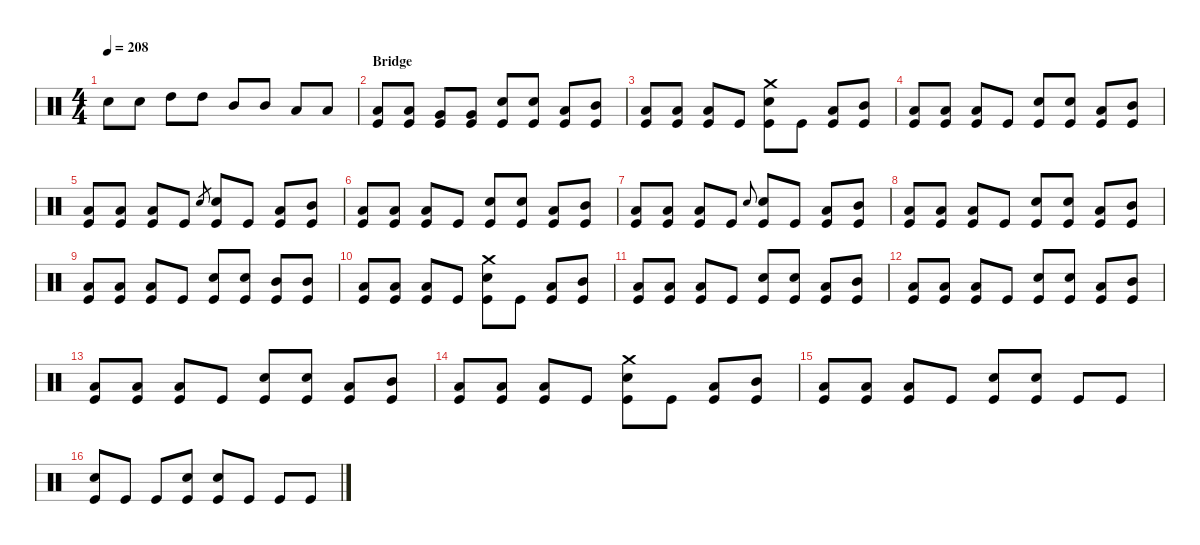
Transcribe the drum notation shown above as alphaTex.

\defaultSystemsLayout 4
\hideDynamics
\bracketExtendMode nobrackets
\singleTrackTrackNamePolicy hidden
\multiTrackTrackNamePolicy hidden
\otherSystemsTrackNameOrientation horizontal
\track ("Drums" "drm.") {multiBarRest instrument percussion}
\staff {score}
\articulation defaults
\ts (4 4)
\tempo 208
\clef neutral
\ks c "Snare (hit) 2".8{dy f beam Down} "Snare (hit) 2".8{beam Down} "High Tom (hit)".8{dy ff beam Down} "High Tom (hit)".8{beam Down} "Mid Tom (hit)".8{beam Up} "Mid Tom (hit)".8{beam Up} "Low Tom (hit)".8{beam Up} "Low Tom (hit)".8{beam Up}
|
\section ("" "Bridge")
("Kick (hit)" "Low Tom (hit)").8{dy f beam Up} ("Kick (hit)" "Low Tom (hit)").8{beam Up} ("Kick (hit)" "Very Low Tom (hit)").8{beam Up} ("Kick (hit)" "Very Low Tom (hit)").8{beam Up} ("Kick (hit)" "Snare (hit) 2").8{beam Up} ("Kick (hit)" "Snare (hit) 2").8{beam Up} ("Kick (hit)" "Low Tom (hit)").8{beam Up} ("Kick (hit)" "Mid Tom (hit)").8{beam Up} |
("Kick (hit)" "Low Tom (hit)").8{beam Up} ("Kick (hit)" "Low Tom (hit)").8{beam Up} ("Kick (hit)" "Low Tom (hit)").8{beam Up} "Kick (hit)".8{beam Up} ("Kick (hit)" "Snare (hit) 2" "Crash medium (hit)").8{beam Down} "Kick (hit)".8{beam Down} ("Kick (hit)" "Low Tom (hit)").8{beam Up} ("Kick (hit)" "Mid Tom (hit)").8{beam Up} |
("Kick (hit)" "Low Tom (hit)").8{beam Up} ("Kick (hit)" "Low Tom (hit)").8{beam Up} ("Kick (hit)" "Low Tom (hit)").8{beam Up} "Kick (hit)".8{beam Up} ("Kick (hit)" "Snare (hit) 2").8{beam Up} ("Kick (hit)" "Snare (hit) 2").8{beam Up} ("Kick (hit)" "Low Tom (hit)").8{beam Up} ("Kick (hit)" "Mid Tom (hit)").8{beam Up} |
("Kick (hit)" "Low Tom (hit)").8{beam Up} ("Kick (hit)" "Low Tom (hit)").8{beam Up} ("Kick (hit)" "Low Tom (hit)").8{beam Up} "Kick (hit)".8{beam Up} "Snare (hit) 2".8{gr beam Up} ("Kick (hit)" "Snare (hit) 2").8{beam Up} "Kick (hit)".8{beam Up} ("Kick (hit)" "Low Tom (hit)").8{beam Up} ("Kick (hit)" "Mid Tom (hit)").8{beam Up} |
("Kick (hit)" "Low Tom (hit)").8{beam Up} ("Kick (hit)" "Low Tom (hit)").8{beam Up} ("Kick (hit)" "Low Tom (hit)").8{beam Up} "Kick (hit)".8{beam Up} ("Kick (hit)" "Snare (hit) 2").8{beam Up} ("Kick (hit)" "Snare (hit) 2").8{beam Up} ("Kick (hit)" "Low Tom (hit)").8{beam Up} ("Kick (hit)" "Mid Tom (hit)").8{beam Up} |
("Kick (hit)" "Low Tom (hit)").8{beam Up} ("Kick (hit)" "Low Tom (hit)").8{beam Up} ("Kick (hit)" "Low Tom (hit)").8{beam Up} "Kick (hit)".8{beam Up} "Snare (hit) 2".8{gr onbeat beam Up} ("Kick (hit)" "Snare (hit) 2").8{beam Up} "Kick (hit)".8{beam Up} ("Kick (hit)" "Low Tom (hit)").8{beam Up} ("Kick (hit)" "Mid Tom (hit)").8{beam Up} |
("Kick (hit)" "Low Tom (hit)").8{beam Up} ("Kick (hit)" "Low Tom (hit)").8{beam Up} ("Kick (hit)" "Low Tom (hit)").8{beam Up} "Kick (hit)".8{beam Up} ("Kick (hit)" "Snare (hit) 2").8{beam Up} ("Kick (hit)" "Snare (hit) 2").8{beam Up} ("Kick (hit)" "Low Tom (hit)").8{beam Up} ("Kick (hit)" "Mid Tom (hit)").8{beam Up} |
("Kick (hit)" "Low Tom (hit)").8{beam Up} ("Kick (hit)" "Low Tom (hit)").8{beam Up} ("Kick (hit)" "Low Tom (hit)").8{beam Up} "Kick (hit)".8{beam Up} ("Kick (hit)" "Snare (hit) 2").8{beam Up} ("Kick (hit)" "Snare (hit) 2").8{beam Up} ("Kick (hit)" "Mid Tom (hit)").8{beam Up} ("Kick (hit)" "Mid Tom (hit)").8{beam Up} |
("Kick (hit)" "Low Tom (hit)").8{beam Up} ("Kick (hit)" "Low Tom (hit)").8{beam Up} ("Kick (hit)" "Low Tom (hit)").8{beam Up} "Kick (hit)".8{beam Up} ("Kick (hit)" "Snare (hit) 2" "Crash medium (hit)").8{beam Down} "Kick (hit)".8{beam Down} ("Kick (hit)" "Low Tom (hit)").8{beam Up} ("Kick (hit)" "Mid Tom (hit)").8{beam Up} |
("Kick (hit)" "Low Tom (hit)").8{beam Up} ("Kick (hit)" "Low Tom (hit)").8{beam Up} ("Kick (hit)" "Low Tom (hit)").8{beam Up} "Kick (hit)".8{beam Up} ("Kick (hit)" "Snare (hit) 2").8{beam Up} ("Kick (hit)" "Snare (hit) 2").8{beam Up} ("Kick (hit)" "Low Tom (hit)").8{beam Up} ("Kick (hit)" "Mid Tom (hit)").8{beam Up} |
("Kick (hit)" "Low Tom (hit)").8{beam Up} ("Kick (hit)" "Low Tom (hit)").8{beam Up} ("Kick (hit)" "Low Tom (hit)").8{beam Up} "Kick (hit)".8{beam Up} ("Kick (hit)" "Snare (hit) 2").8{beam Up} ("Kick (hit)" "Snare (hit) 2").8{beam Up} ("Kick (hit)" "Low Tom (hit)").8{beam Up} ("Kick (hit)" "Mid Tom (hit)").8{beam Up} |
("Kick (hit)" "Low Tom (hit)").8{beam Up} ("Kick (hit)" "Low Tom (hit)").8{beam Up} ("Kick (hit)" "Low Tom (hit)").8{beam Up} "Kick (hit)".8{beam Up} ("Kick (hit)" "Snare (hit) 2").8{beam Up} ("Kick (hit)" "Snare (hit) 2").8{beam Up} ("Kick (hit)" "Low Tom (hit)").8{beam Up} ("Kick (hit)" "Mid Tom (hit)").8{beam Up} |
("Kick (hit)" "Low Tom (hit)").8{beam Up} ("Kick (hit)" "Low Tom (hit)").8{beam Up} ("Kick (hit)" "Low Tom (hit)").8{beam Up} "Kick (hit)".8{beam Up} ("Kick (hit)" "Snare (hit) 2" "Crash medium (hit)").8{beam Down} "Kick (hit)".8{beam Down} ("Kick (hit)" "Low Tom (hit)").8{beam Up} ("Kick (hit)" "Mid Tom (hit)").8{beam Up} |
("Kick (hit)" "Low Tom (hit)").8{beam Up} ("Kick (hit)" "Low Tom (hit)").8{beam Up} ("Kick (hit)" "Low Tom (hit)").8{beam Up} "Kick (hit)".8{beam Up} ("Kick (hit)" "Snare (hit) 2").8{beam Up} ("Kick (hit)" "Snare (hit) 2").8{beam Up} "Kick (hit)".8{beam Up} "Kick (hit)".8{beam Up} |
("Kick (hit)" "Snare (hit) 2").8{beam Up} "Kick (hit)".8{beam Up} "Kick (hit)".8{beam Up} ("Kick (hit)" "Snare (hit) 2").8{beam Up} ("Kick (hit)" "Snare (hit) 2").8{beam Up} "Kick (hit)".8{beam Up} "Kick (hit)".8{beam Up} "Kick (hit)".8{beam Up}
